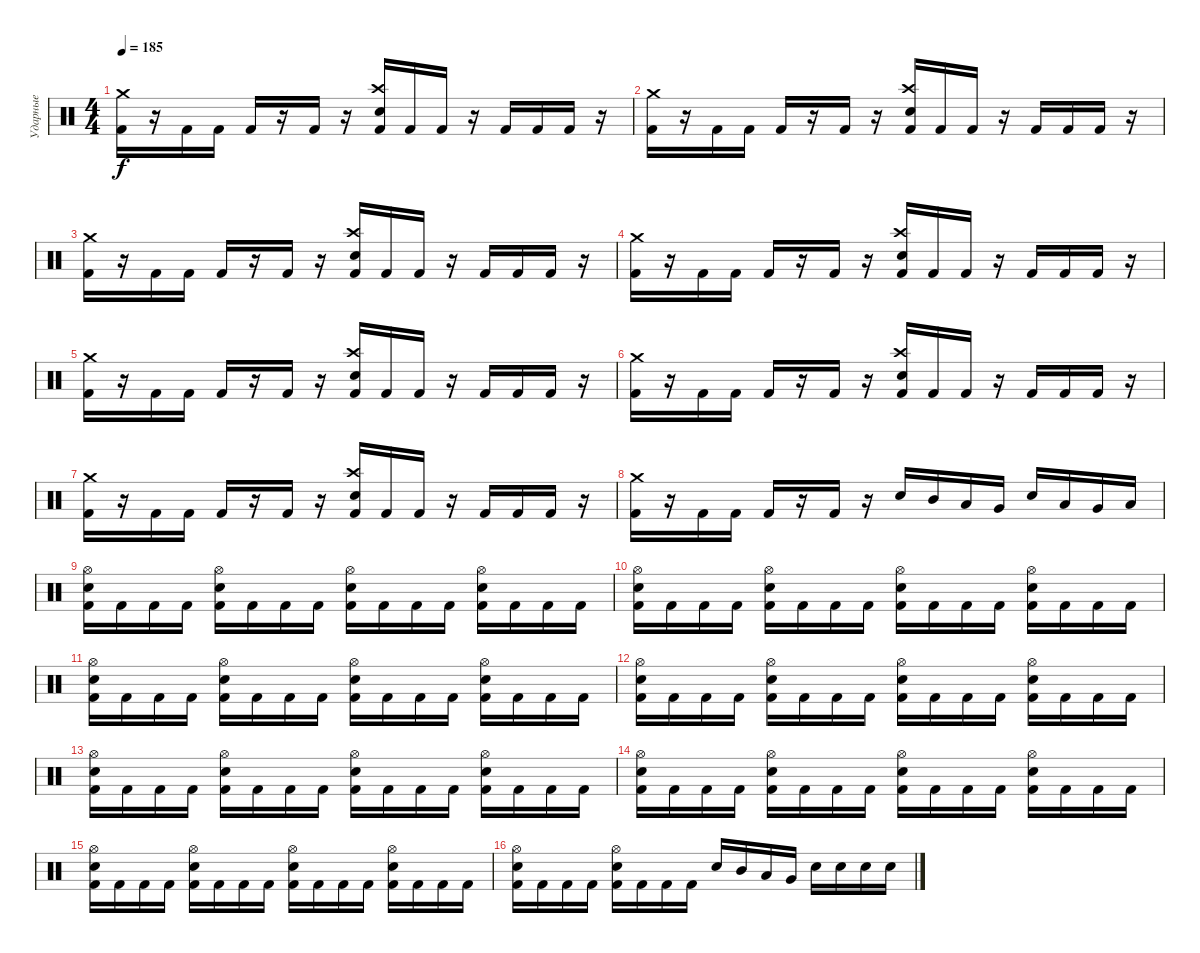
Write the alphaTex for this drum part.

\track ("Ударные" "Ударные") {instrument percussion}
\staff {score}
\articulation defaults
\ts (4 4)
\tempo 185
\clef neutral
\ks c
("Crash medium (hit)" "Kick (hit) 2").16{dy f} r.16 "Kick (hit) 2".16 "Kick (hit) 2".16 "Kick (hit) 2".16 r.16 "Kick (hit) 2".16 r.16 ("Crash high (hit)" "Electric Snare (hit)" "Kick (hit) 2").16 "Kick (hit) 2".16 "Kick (hit) 2".16 r.16 "Kick (hit) 2".16 "Kick (hit) 2".16 "Kick (hit) 2".16 r.16 |
("Crash medium (hit)" "Kick (hit) 2").16 r.16 "Kick (hit) 2".16 "Kick (hit) 2".16 "Kick (hit) 2".16 r.16 "Kick (hit) 2".16 r.16 ("Crash high (hit)" "Electric Snare (hit)" "Kick (hit) 2").16 "Kick (hit) 2".16 "Kick (hit) 2".16 r.16 "Kick (hit) 2".16 "Kick (hit) 2".16 "Kick (hit) 2".16 r.16 |
("Crash medium (hit)" "Kick (hit) 2").16 r.16 "Kick (hit) 2".16 "Kick (hit) 2".16 "Kick (hit) 2".16 r.16 "Kick (hit) 2".16 r.16 ("Crash high (hit)" "Electric Snare (hit)" "Kick (hit) 2").16 "Kick (hit) 2".16 "Kick (hit) 2".16 r.16 "Kick (hit) 2".16 "Kick (hit) 2".16 "Kick (hit) 2".16 r.16 |
("Crash medium (hit)" "Kick (hit) 2").16 r.16 "Kick (hit) 2".16 "Kick (hit) 2".16 "Kick (hit) 2".16 r.16 "Kick (hit) 2".16 r.16 ("Crash high (hit)" "Electric Snare (hit)" "Kick (hit) 2").16 "Kick (hit) 2".16 "Kick (hit) 2".16 r.16 "Kick (hit) 2".16 "Kick (hit) 2".16 "Kick (hit) 2".16 r.16 |
("Crash medium (hit)" "Kick (hit) 2").16 r.16 "Kick (hit) 2".16 "Kick (hit) 2".16 "Kick (hit) 2".16 r.16 "Kick (hit) 2".16 r.16 ("Crash high (hit)" "Electric Snare (hit)" "Kick (hit) 2").16 "Kick (hit) 2".16 "Kick (hit) 2".16 r.16 "Kick (hit) 2".16 "Kick (hit) 2".16 "Kick (hit) 2".16 r.16 |
("Crash medium (hit)" "Kick (hit) 2").16 r.16 "Kick (hit) 2".16 "Kick (hit) 2".16 "Kick (hit) 2".16 r.16 "Kick (hit) 2".16 r.16 ("Crash high (hit)" "Electric Snare (hit)" "Kick (hit) 2").16 "Kick (hit) 2".16 "Kick (hit) 2".16 r.16 "Kick (hit) 2".16 "Kick (hit) 2".16 "Kick (hit) 2".16 r.16 |
("Crash medium (hit)" "Kick (hit) 2").16 r.16 "Kick (hit) 2".16 "Kick (hit) 2".16 "Kick (hit) 2".16 r.16 "Kick (hit) 2".16 r.16 ("Crash high (hit)" "Electric Snare (hit)" "Kick (hit) 2").16 "Kick (hit) 2".16 "Kick (hit) 2".16 r.16 "Kick (hit) 2".16 "Kick (hit) 2".16 "Kick (hit) 2".16 r.16 |
("Crash medium (hit)" "Kick (hit) 2").16 r.16 "Kick (hit) 2".16 "Kick (hit) 2".16 "Kick (hit) 2".16 r.16 "Kick (hit) 2".16 r.16 "Electric Snare (hit)".16 "Mid Tom (hit)".16 "Low Tom (hit)".16 "Very Low Tom (hit)".16 "Electric Snare (hit)".16 "Low Tom (hit)".16 "Very Low Tom (hit)".16 "Low Floor Tom (hit)".16 |
("Hi-Hat (open)" "Electric Snare (hit)" "Kick (hit) 2").16 "Kick (hit) 2".16 "Kick (hit) 2".16 "Kick (hit) 2".16 ("Hi-Hat (open)" "Electric Snare (hit)" "Kick (hit) 2").16 "Kick (hit) 2".16 "Kick (hit) 2".16 "Kick (hit) 2".16 ("Hi-Hat (open)" "Electric Snare (hit)" "Kick (hit) 2").16 "Kick (hit) 2".16 "Kick (hit) 2".16 "Kick (hit) 2".16 ("Hi-Hat (open)" "Electric Snare (hit)" "Kick (hit) 2").16 "Kick (hit) 2".16 "Kick (hit) 2".16 "Kick (hit) 2".16 |
("Hi-Hat (open)" "Electric Snare (hit)" "Kick (hit) 2").16 "Kick (hit) 2".16 "Kick (hit) 2".16 "Kick (hit) 2".16 ("Hi-Hat (open)" "Electric Snare (hit)" "Kick (hit) 2").16 "Kick (hit) 2".16 "Kick (hit) 2".16 "Kick (hit) 2".16 ("Hi-Hat (open)" "Electric Snare (hit)" "Kick (hit) 2").16 "Kick (hit) 2".16 "Kick (hit) 2".16 "Kick (hit) 2".16 ("Hi-Hat (open)" "Electric Snare (hit)" "Kick (hit) 2").16 "Kick (hit) 2".16 "Kick (hit) 2".16 "Kick (hit) 2".16 |
("Hi-Hat (open)" "Electric Snare (hit)" "Kick (hit) 2").16 "Kick (hit) 2".16 "Kick (hit) 2".16 "Kick (hit) 2".16 ("Hi-Hat (open)" "Electric Snare (hit)" "Kick (hit) 2").16 "Kick (hit) 2".16 "Kick (hit) 2".16 "Kick (hit) 2".16 ("Hi-Hat (open)" "Electric Snare (hit)" "Kick (hit) 2").16 "Kick (hit) 2".16 "Kick (hit) 2".16 "Kick (hit) 2".16 ("Hi-Hat (open)" "Electric Snare (hit)" "Kick (hit) 2").16 "Kick (hit) 2".16 "Kick (hit) 2".16 "Kick (hit) 2".16 |
("Hi-Hat (open)" "Electric Snare (hit)" "Kick (hit) 2").16 "Kick (hit) 2".16 "Kick (hit) 2".16 "Kick (hit) 2".16 ("Hi-Hat (open)" "Electric Snare (hit)" "Kick (hit) 2").16 "Kick (hit) 2".16 "Kick (hit) 2".16 "Kick (hit) 2".16 ("Hi-Hat (open)" "Electric Snare (hit)" "Kick (hit) 2").16 "Kick (hit) 2".16 "Kick (hit) 2".16 "Kick (hit) 2".16 ("Hi-Hat (open)" "Electric Snare (hit)" "Kick (hit) 2").16 "Kick (hit) 2".16 "Kick (hit) 2".16 "Kick (hit) 2".16 |
("Hi-Hat (open)" "Electric Snare (hit)" "Kick (hit) 2").16 "Kick (hit) 2".16 "Kick (hit) 2".16 "Kick (hit) 2".16 ("Hi-Hat (open)" "Electric Snare (hit)" "Kick (hit) 2").16 "Kick (hit) 2".16 "Kick (hit) 2".16 "Kick (hit) 2".16 ("Hi-Hat (open)" "Electric Snare (hit)" "Kick (hit) 2").16 "Kick (hit) 2".16 "Kick (hit) 2".16 "Kick (hit) 2".16 ("Hi-Hat (open)" "Electric Snare (hit)" "Kick (hit) 2").16 "Kick (hit) 2".16 "Kick (hit) 2".16 "Kick (hit) 2".16 |
("Hi-Hat (open)" "Electric Snare (hit)" "Kick (hit) 2").16 "Kick (hit) 2".16 "Kick (hit) 2".16 "Kick (hit) 2".16 ("Hi-Hat (open)" "Electric Snare (hit)" "Kick (hit) 2").16 "Kick (hit) 2".16 "Kick (hit) 2".16 "Kick (hit) 2".16 ("Hi-Hat (open)" "Electric Snare (hit)" "Kick (hit) 2").16 "Kick (hit) 2".16 "Kick (hit) 2".16 "Kick (hit) 2".16 ("Hi-Hat (open)" "Electric Snare (hit)" "Kick (hit) 2").16 "Kick (hit) 2".16 "Kick (hit) 2".16 "Kick (hit) 2".16 |
("Hi-Hat (open)" "Electric Snare (hit)" "Kick (hit) 2").16 "Kick (hit) 2".16 "Kick (hit) 2".16 "Kick (hit) 2".16 ("Hi-Hat (open)" "Electric Snare (hit)" "Kick (hit) 2").16 "Kick (hit) 2".16 "Kick (hit) 2".16 "Kick (hit) 2".16 ("Hi-Hat (open)" "Electric Snare (hit)" "Kick (hit) 2").16 "Kick (hit) 2".16 "Kick (hit) 2".16 "Kick (hit) 2".16 ("Hi-Hat (open)" "Electric Snare (hit)" "Kick (hit) 2").16 "Kick (hit) 2".16 "Kick (hit) 2".16 "Kick (hit) 2".16 |
("Hi-Hat (open)" "Electric Snare (hit)" "Kick (hit) 2").16 "Kick (hit) 2".16 "Kick (hit) 2".16 "Kick (hit) 2".16 ("Hi-Hat (open)" "Electric Snare (hit)" "Kick (hit) 2").16 "Kick (hit) 2".16 "Kick (hit) 2".16 "Kick (hit) 2".16 "Electric Snare (hit)".16 "Mid Tom (hit)".16 "Low Tom (hit)".16 "Very Low Tom (hit)".16 "Electric Snare (hit)".16 "Electric Snare (hit)".16 "Electric Snare (hit)".16 "Electric Snare (hit)".16
